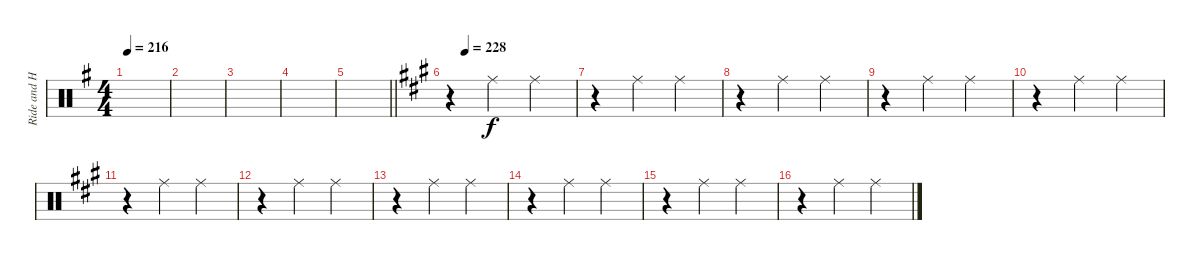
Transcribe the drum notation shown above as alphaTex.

\track ("Ride and Hi Hat" "Ride and H") {instrument percussion}
\staff {score}
\articulation defaults
\ts (4 4)
\tempo 216
\clef neutral
\ks g
|
|
|
|
\barLineRight lightlight
|
\tempo (228 0.125)
\ks a
r.4 "Ride (middle)".4 "Ride (middle)".4 |
r.4 "Ride (middle)".4 "Ride (middle)".4 |
r.4 "Ride (middle)".4 "Ride (middle)".4 |
r.4 "Ride (middle)".4 "Ride (middle)".4 |
r.4 "Ride (middle)".4 "Ride (middle)".4 |
r.4 "Ride (middle)".4 "Ride (middle)".4 |
r.4 "Ride (middle)".4 "Ride (middle)".4 |
r.4 "Ride (middle)".4 "Ride (middle)".4 |
r.4 "Ride (middle)".4 "Ride (middle)".4 |
r.4 "Ride (middle)".4 "Ride (middle)".4 |
r.4 "Ride (middle)".4 "Ride (middle)".4
